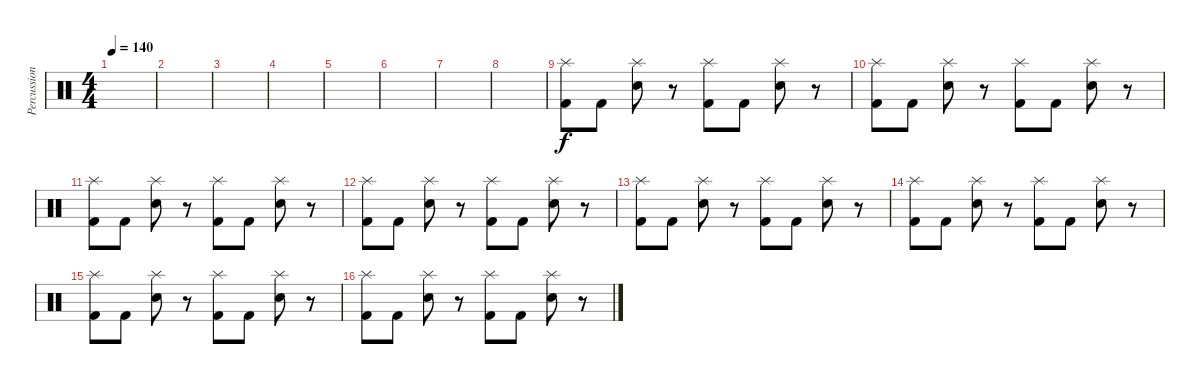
\track ("Percussion" "Percussion") {instrument percussion}
\staff {score}
\articulation defaults
\ts (4 4)
\tempo 140
\clef neutral
\ks c
|
|
|
|
|
|
|
|
("Splash (hit)" "Kick (hit) 2").8 "Kick (hit) 2".8 ("Splash (hit)" "Snare (hit) 2").8 r.8 ("Splash (hit)" "Kick (hit) 2").8 "Kick (hit) 2".8 ("Splash (hit)" "Snare (hit) 2").8 r.8 |
("Splash (hit)" "Kick (hit) 2").8 "Kick (hit) 2".8 ("Splash (hit)" "Snare (hit) 2").8 r.8 ("Splash (hit)" "Kick (hit) 2").8 "Kick (hit) 2".8 ("Splash (hit)" "Snare (hit) 2").8 r.8 |
("Splash (hit)" "Kick (hit) 2").8 "Kick (hit) 2".8 ("Splash (hit)" "Snare (hit) 2").8 r.8 ("Splash (hit)" "Kick (hit) 2").8 "Kick (hit) 2".8 ("Splash (hit)" "Snare (hit) 2").8 r.8 |
("Splash (hit)" "Kick (hit) 2").8 "Kick (hit) 2".8 ("Splash (hit)" "Snare (hit) 2").8 r.8 ("Splash (hit)" "Kick (hit) 2").8 "Kick (hit) 2".8 ("Splash (hit)" "Snare (hit) 2").8 r.8 |
("Splash (hit)" "Kick (hit) 2").8 "Kick (hit) 2".8 ("Splash (hit)" "Snare (hit) 2").8 r.8 ("Splash (hit)" "Kick (hit) 2").8 "Kick (hit) 2".8 ("Splash (hit)" "Snare (hit) 2").8 r.8 |
("Splash (hit)" "Kick (hit) 2").8 "Kick (hit) 2".8 ("Splash (hit)" "Snare (hit) 2").8 r.8 ("Splash (hit)" "Kick (hit) 2").8 "Kick (hit) 2".8 ("Splash (hit)" "Snare (hit) 2").8 r.8 |
("Splash (hit)" "Kick (hit) 2").8 "Kick (hit) 2".8 ("Splash (hit)" "Snare (hit) 2").8 r.8 ("Splash (hit)" "Kick (hit) 2").8 "Kick (hit) 2".8 ("Splash (hit)" "Snare (hit) 2").8 r.8 |
("Splash (hit)" "Kick (hit) 2").8 "Kick (hit) 2".8 ("Splash (hit)" "Snare (hit) 2").8 r.8 ("Splash (hit)" "Kick (hit) 2").8 "Kick (hit) 2".8 ("Splash (hit)" "Snare (hit) 2").8 r.8
